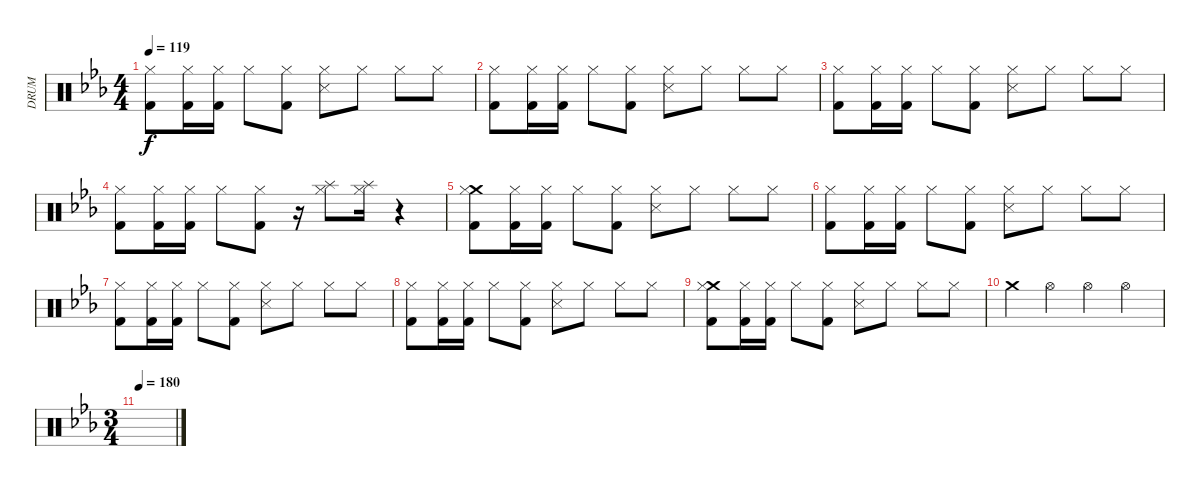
\track ("DRUM" "DRUM") {instrument percussion}
\staff {score}
\articulation defaults
\ts (4 4)
\tempo 119
\clef neutral
\ks eb
("Hi-Hat (closed)" "Kick (hit) 2").8{dy f} ("Hi-Hat (closed)" "Kick (hit) 2").16 ("Hi-Hat (closed)" "Kick (hit) 2").16 "Hi-Hat (closed)".8 ("Hi-Hat (closed)" "Kick (hit) 2").8 ("Hi-Hat (closed)" "Snare (side stick) 3").8 "Hi-Hat (closed)".8 "Hi-Hat (closed)".8 "Hi-Hat (closed)".8 |
("Hi-Hat (closed)" "Kick (hit) 2").8 ("Hi-Hat (closed)" "Kick (hit) 2").16 ("Hi-Hat (closed)" "Kick (hit) 2").16 "Hi-Hat (closed)".8 ("Hi-Hat (closed)" "Kick (hit) 2").8 ("Hi-Hat (closed)" "Snare (side stick) 3").8 "Hi-Hat (closed)".8 "Hi-Hat (closed)".8 "Hi-Hat (closed)".8 |
("Hi-Hat (closed)" "Kick (hit) 2").8 ("Hi-Hat (closed)" "Kick (hit) 2").16 ("Hi-Hat (closed)" "Kick (hit) 2").16 "Hi-Hat (closed)".8 ("Hi-Hat (closed)" "Kick (hit) 2").8 ("Hi-Hat (closed)" "Snare (side stick) 3").8 "Hi-Hat (closed)".8 "Hi-Hat (closed)".8 "Hi-Hat (closed)".8 |
("Hi-Hat (closed)" "Kick (hit) 2").8 ("Hi-Hat (closed)" "Kick (hit) 2").16 ("Hi-Hat (closed)" "Kick (hit) 2").16 "Hi-Hat (closed)".8 ("Hi-Hat (closed)" "Kick (hit) 2").8 r.16 ("Splash (hit)" "Hi-Hat (closed)").8 ("Splash (hit)" "Hi-Hat (closed)").16 r.4 |
("Crash medium (hit)" "Hi-Hat (closed)" "Kick (hit) 2").8 ("Hi-Hat (closed)" "Kick (hit) 2").16 ("Hi-Hat (closed)" "Kick (hit) 2").16 "Hi-Hat (closed)".8 ("Hi-Hat (closed)" "Kick (hit) 2").8 ("Hi-Hat (closed)" "Snare (side stick) 3").8 "Hi-Hat (closed)".8 "Hi-Hat (closed)".8 "Hi-Hat (closed)".8 |
("Hi-Hat (closed)" "Kick (hit) 2").8 ("Hi-Hat (closed)" "Kick (hit) 2").16 ("Hi-Hat (closed)" "Kick (hit) 2").16 "Hi-Hat (closed)".8 ("Hi-Hat (closed)" "Kick (hit) 2").8 ("Hi-Hat (closed)" "Snare (side stick) 3").8 "Hi-Hat (closed)".8 "Hi-Hat (closed)".8 "Hi-Hat (closed)".8 |
("Hi-Hat (closed)" "Kick (hit) 2").8 ("Hi-Hat (closed)" "Kick (hit) 2").16 ("Hi-Hat (closed)" "Kick (hit) 2").16 "Hi-Hat (closed)".8 ("Hi-Hat (closed)" "Kick (hit) 2").8 ("Hi-Hat (closed)" "Snare (side stick) 3").8 "Hi-Hat (closed)".8 "Hi-Hat (closed)".8 "Hi-Hat (closed)".8 |
("Hi-Hat (closed)" "Kick (hit) 2").8 ("Hi-Hat (closed)" "Kick (hit) 2").16 ("Hi-Hat (closed)" "Kick (hit) 2").16 "Hi-Hat (closed)".8 ("Hi-Hat (closed)" "Kick (hit) 2").8 ("Hi-Hat (closed)" "Snare (side stick) 3").8 "Hi-Hat (closed)".8 "Hi-Hat (closed)".8 "Hi-Hat (closed)".8 |
("Crash medium (hit)" "Hi-Hat (closed)" "Kick (hit) 2").8 ("Hi-Hat (closed)" "Kick (hit) 2").16 ("Hi-Hat (closed)" "Kick (hit) 2").16 "Hi-Hat (closed)".8 ("Hi-Hat (closed)" "Kick (hit) 2").8 ("Hi-Hat (closed)" "Snare (side stick) 3").8 "Hi-Hat (closed)".8 "Hi-Hat (closed)".8 "Hi-Hat (closed)".8 |
"Crash medium (hit)".4 "Hi-Hat (open)".4 "Hi-Hat (open)".4 "Hi-Hat (open)".4 |
\ts (3 4)
\tempo 180
